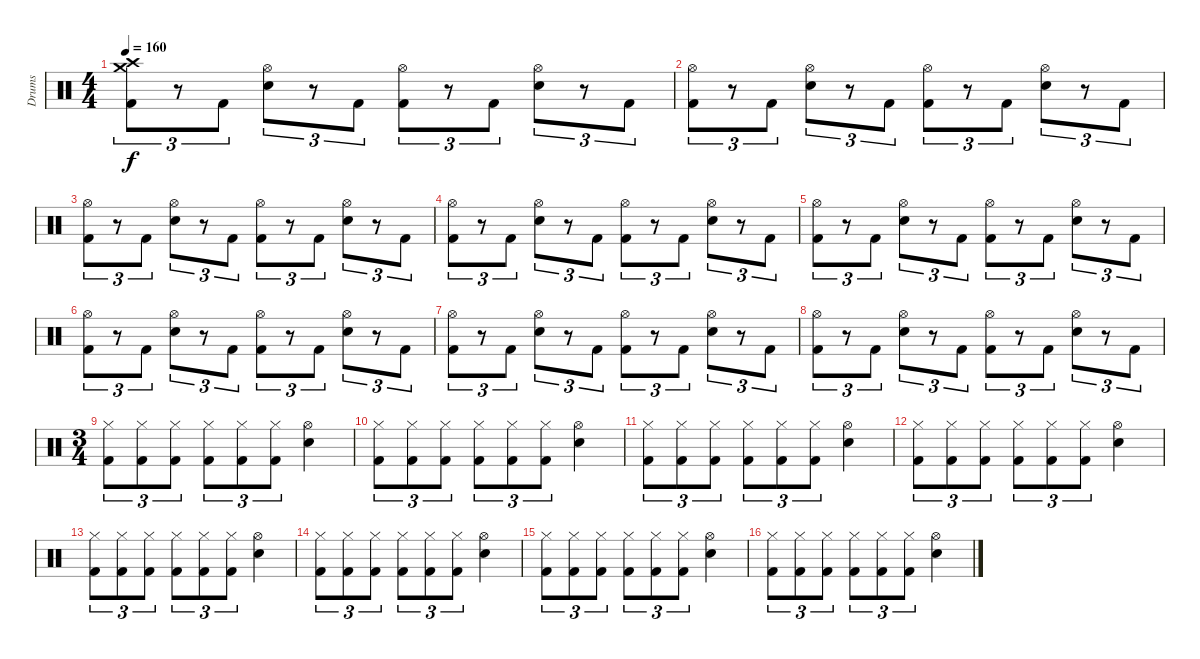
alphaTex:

\track ("Drums" "Drums") {instrument percussion}
\staff {score}
\articulation defaults
\ts (4 4)
\tempo 160
\clef neutral
\ks c
("Crash medium (hit)" "Crash high (hit)" "Kick (hit) 2").8{tu (3 2) dy f} r.8{tu (3 2)} "Kick (hit) 2".8{tu (3 2)} ("Hi-Hat (open)" "Snare (hit) 2").8{tu (3 2)} r.8{tu (3 2)} "Kick (hit) 2".8{tu (3 2)} ("Hi-Hat (open)" "Kick (hit) 2").8{tu (3 2)} r.8{tu (3 2)} "Kick (hit) 2".8{tu (3 2)} ("Hi-Hat (open)" "Snare (hit) 2").8{tu (3 2)} r.8{tu (3 2)} "Kick (hit) 2".8{tu (3 2)} |
("Hi-Hat (open)" "Kick (hit) 2").8{tu (3 2)} r.8{tu (3 2)} "Kick (hit) 2".8{tu (3 2)} ("Hi-Hat (open)" "Snare (hit) 2").8{tu (3 2)} r.8{tu (3 2)} "Kick (hit) 2".8{tu (3 2)} ("Hi-Hat (open)" "Kick (hit) 2").8{tu (3 2)} r.8{tu (3 2)} "Kick (hit) 2".8{tu (3 2)} ("Hi-Hat (open)" "Snare (hit) 2").8{tu (3 2)} r.8{tu (3 2)} "Kick (hit) 2".8{tu (3 2)} |
("Hi-Hat (open)" "Kick (hit) 2").8{tu (3 2)} r.8{tu (3 2)} "Kick (hit) 2".8{tu (3 2)} ("Hi-Hat (open)" "Snare (hit) 2").8{tu (3 2)} r.8{tu (3 2)} "Kick (hit) 2".8{tu (3 2)} ("Hi-Hat (open)" "Kick (hit) 2").8{tu (3 2)} r.8{tu (3 2)} "Kick (hit) 2".8{tu (3 2)} ("Hi-Hat (open)" "Snare (hit) 2").8{tu (3 2)} r.8{tu (3 2)} "Kick (hit) 2".8{tu (3 2)} |
("Hi-Hat (open)" "Kick (hit) 2").8{tu (3 2)} r.8{tu (3 2)} "Kick (hit) 2".8{tu (3 2)} ("Hi-Hat (open)" "Snare (hit) 2").8{tu (3 2)} r.8{tu (3 2)} "Kick (hit) 2".8{tu (3 2)} ("Hi-Hat (open)" "Kick (hit) 2").8{tu (3 2)} r.8{tu (3 2)} "Kick (hit) 2".8{tu (3 2)} ("Hi-Hat (open)" "Snare (hit) 2").8{tu (3 2)} r.8{tu (3 2)} "Kick (hit) 2".8{tu (3 2)} |
("Hi-Hat (open)" "Kick (hit) 2").8{tu (3 2)} r.8{tu (3 2)} "Kick (hit) 2".8{tu (3 2)} ("Hi-Hat (open)" "Snare (hit) 2").8{tu (3 2)} r.8{tu (3 2)} "Kick (hit) 2".8{tu (3 2)} ("Hi-Hat (open)" "Kick (hit) 2").8{tu (3 2)} r.8{tu (3 2)} "Kick (hit) 2".8{tu (3 2)} ("Hi-Hat (open)" "Snare (hit) 2").8{tu (3 2)} r.8{tu (3 2)} "Kick (hit) 2".8{tu (3 2)} |
("Hi-Hat (open)" "Kick (hit) 2").8{tu (3 2)} r.8{tu (3 2)} "Kick (hit) 2".8{tu (3 2)} ("Hi-Hat (open)" "Snare (hit) 2").8{tu (3 2)} r.8{tu (3 2)} "Kick (hit) 2".8{tu (3 2)} ("Hi-Hat (open)" "Kick (hit) 2").8{tu (3 2)} r.8{tu (3 2)} "Kick (hit) 2".8{tu (3 2)} ("Hi-Hat (open)" "Snare (hit) 2").8{tu (3 2)} r.8{tu (3 2)} "Kick (hit) 2".8{tu (3 2)} |
("Hi-Hat (open)" "Kick (hit) 2").8{tu (3 2)} r.8{tu (3 2)} "Kick (hit) 2".8{tu (3 2)} ("Hi-Hat (open)" "Snare (hit) 2").8{tu (3 2)} r.8{tu (3 2)} "Kick (hit) 2".8{tu (3 2)} ("Hi-Hat (open)" "Kick (hit) 2").8{tu (3 2)} r.8{tu (3 2)} "Kick (hit) 2".8{tu (3 2)} ("Hi-Hat (open)" "Snare (hit) 2").8{tu (3 2)} r.8{tu (3 2)} "Kick (hit) 2".8{tu (3 2)} |
("Hi-Hat (open)" "Kick (hit) 2").8{tu (3 2)} r.8{tu (3 2)} "Kick (hit) 2".8{tu (3 2)} ("Hi-Hat (open)" "Snare (hit) 2").8{tu (3 2)} r.8{tu (3 2)} "Kick (hit) 2".8{tu (3 2)} ("Hi-Hat (open)" "Kick (hit) 2").8{tu (3 2)} r.8{tu (3 2)} "Kick (hit) 2".8{tu (3 2)} ("Hi-Hat (open)" "Snare (hit) 2").8{tu (3 2)} r.8{tu (3 2)} "Kick (hit) 2".8{tu (3 2)} |
\ts (3 4)
("Hi-Hat (closed)" "Kick (hit) 2").8{tu (3 2)} ("Hi-Hat (closed)" "Kick (hit) 2").8{tu (3 2)} ("Hi-Hat (closed)" "Kick (hit) 2").8{tu (3 2)} ("Hi-Hat (closed)" "Kick (hit) 2").8{tu (3 2)} ("Hi-Hat (closed)" "Kick (hit) 2").8{tu (3 2)} ("Hi-Hat (closed)" "Kick (hit) 2").8{tu (3 2)} ("Hi-Hat (open)" "Snare (hit) 2").4 |
("Hi-Hat (closed)" "Kick (hit) 2").8{tu (3 2)} ("Hi-Hat (closed)" "Kick (hit) 2").8{tu (3 2)} ("Hi-Hat (closed)" "Kick (hit) 2").8{tu (3 2)} ("Hi-Hat (closed)" "Kick (hit) 2").8{tu (3 2)} ("Hi-Hat (closed)" "Kick (hit) 2").8{tu (3 2)} ("Hi-Hat (closed)" "Kick (hit) 2").8{tu (3 2)} ("Hi-Hat (open)" "Snare (hit) 2").4 |
("Hi-Hat (closed)" "Kick (hit) 2").8{tu (3 2)} ("Hi-Hat (closed)" "Kick (hit) 2").8{tu (3 2)} ("Hi-Hat (closed)" "Kick (hit) 2").8{tu (3 2)} ("Hi-Hat (closed)" "Kick (hit) 2").8{tu (3 2)} ("Hi-Hat (closed)" "Kick (hit) 2").8{tu (3 2)} ("Hi-Hat (closed)" "Kick (hit) 2").8{tu (3 2)} ("Hi-Hat (open)" "Snare (hit) 2").4 |
("Hi-Hat (closed)" "Kick (hit) 2").8{tu (3 2)} ("Hi-Hat (closed)" "Kick (hit) 2").8{tu (3 2)} ("Hi-Hat (closed)" "Kick (hit) 2").8{tu (3 2)} ("Hi-Hat (closed)" "Kick (hit) 2").8{tu (3 2)} ("Hi-Hat (closed)" "Kick (hit) 2").8{tu (3 2)} ("Hi-Hat (closed)" "Kick (hit) 2").8{tu (3 2)} ("Hi-Hat (open)" "Snare (hit) 2").4 |
("Hi-Hat (closed)" "Kick (hit) 2").8{tu (3 2)} ("Hi-Hat (closed)" "Kick (hit) 2").8{tu (3 2)} ("Hi-Hat (closed)" "Kick (hit) 2").8{tu (3 2)} ("Hi-Hat (closed)" "Kick (hit) 2").8{tu (3 2)} ("Hi-Hat (closed)" "Kick (hit) 2").8{tu (3 2)} ("Hi-Hat (closed)" "Kick (hit) 2").8{tu (3 2)} ("Hi-Hat (open)" "Snare (hit) 2").4 |
("Hi-Hat (closed)" "Kick (hit) 2").8{tu (3 2)} ("Hi-Hat (closed)" "Kick (hit) 2").8{tu (3 2)} ("Hi-Hat (closed)" "Kick (hit) 2").8{tu (3 2)} ("Hi-Hat (closed)" "Kick (hit) 2").8{tu (3 2)} ("Hi-Hat (closed)" "Kick (hit) 2").8{tu (3 2)} ("Hi-Hat (closed)" "Kick (hit) 2").8{tu (3 2)} ("Hi-Hat (open)" "Snare (hit) 2").4 |
("Hi-Hat (closed)" "Kick (hit) 2").8{tu (3 2)} ("Hi-Hat (closed)" "Kick (hit) 2").8{tu (3 2)} ("Hi-Hat (closed)" "Kick (hit) 2").8{tu (3 2)} ("Hi-Hat (closed)" "Kick (hit) 2").8{tu (3 2)} ("Hi-Hat (closed)" "Kick (hit) 2").8{tu (3 2)} ("Hi-Hat (closed)" "Kick (hit) 2").8{tu (3 2)} ("Hi-Hat (open)" "Snare (hit) 2").4 |
("Hi-Hat (closed)" "Kick (hit) 2").8{tu (3 2)} ("Hi-Hat (closed)" "Kick (hit) 2").8{tu (3 2)} ("Hi-Hat (closed)" "Kick (hit) 2").8{tu (3 2)} ("Hi-Hat (closed)" "Kick (hit) 2").8{tu (3 2)} ("Hi-Hat (closed)" "Kick (hit) 2").8{tu (3 2)} ("Hi-Hat (closed)" "Kick (hit) 2").8{tu (3 2)} ("Hi-Hat (open)" "Snare (hit) 2").4
